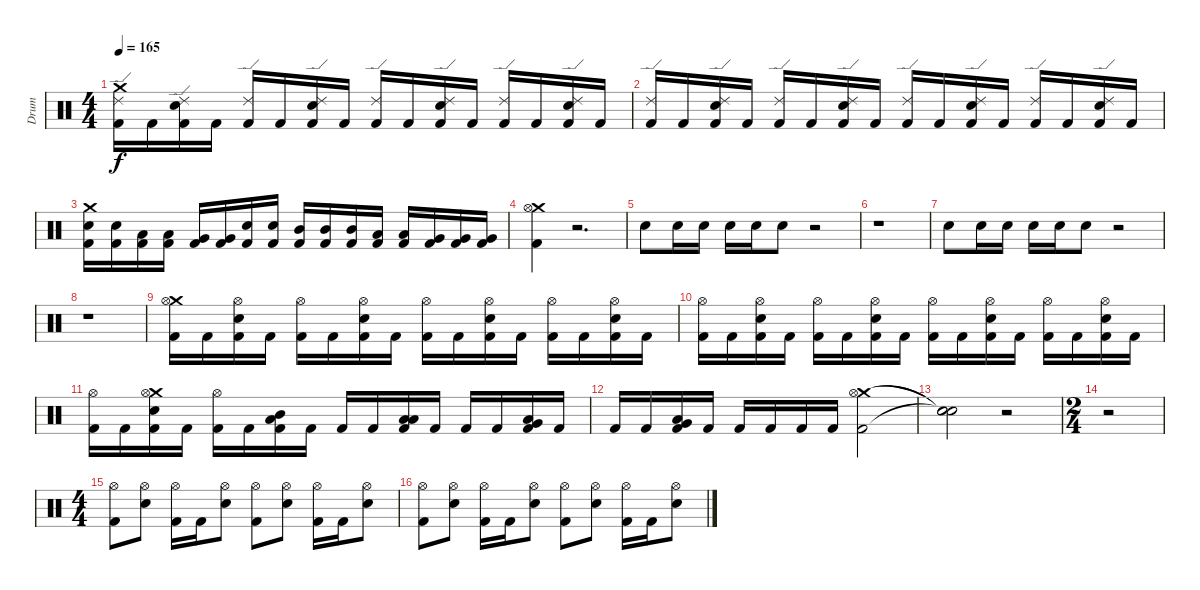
\track ("Drum" "Drum") {instrument percussion}
\staff {score}
\articulation defaults
\ts (4 4)
\tempo 165
\clef neutral
\ks c
("Crash medium (hit)" "Ride (edge) 2" "Kick (hit) 2").16{dy f} "Kick (hit) 2".16 ("Electric Snare (hit)" "Ride (edge) 2" "Kick (hit) 2").16 "Kick (hit) 2".16 ("Ride (edge) 2" "Kick (hit) 2").16 "Kick (hit) 2".16 ("Electric Snare (hit)" "Ride (edge) 2" "Kick (hit) 2").16 "Kick (hit) 2".16 ("Ride (edge) 2" "Kick (hit) 2").16 "Kick (hit) 2".16 ("Electric Snare (hit)" "Ride (edge) 2" "Kick (hit) 2").16 "Kick (hit) 2".16 ("Ride (edge) 2" "Kick (hit) 2").16 "Kick (hit) 2".16 ("Electric Snare (hit)" "Ride (edge) 2" "Kick (hit) 2").16 "Kick (hit) 2".16 |
("Ride (edge) 2" "Kick (hit) 2").16 "Kick (hit) 2".16 ("Electric Snare (hit)" "Ride (edge) 2" "Kick (hit) 2").16 "Kick (hit) 2".16 ("Ride (edge) 2" "Kick (hit) 2").16 "Kick (hit) 2".16 ("Electric Snare (hit)" "Ride (edge) 2" "Kick (hit) 2").16 "Kick (hit) 2".16 ("Ride (edge) 2" "Kick (hit) 2").16 "Kick (hit) 2".16 ("Electric Snare (hit)" "Ride (edge) 2" "Kick (hit) 2").16 "Kick (hit) 2".16 ("Ride (edge) 2" "Kick (hit) 2").16 "Kick (hit) 2".16 ("Electric Snare (hit)" "Ride (edge) 2" "Kick (hit) 2").16 "Kick (hit) 2".16 |
("Crash medium (hit)" "Electric Snare (hit)" "Kick (hit) 2").16 ("Electric Snare (hit)" "Kick (hit) 2").16 ("Low Tom (hit)" "Kick (hit) 2").16 ("Low Tom (hit)" "Kick (hit) 2").16 ("Very Low Tom (hit)" "Kick (hit) 2").16 ("Very Low Tom (hit)" "Kick (hit) 2").16 ("Electric Snare (hit)" "Kick (hit) 2").16 ("Electric Snare (hit)" "Kick (hit) 2").16 ("Mid Tom (hit)" "Kick (hit) 2").16 ("Mid Tom (hit)" "Kick (hit) 2").16 ("Mid Tom (hit)" "Kick (hit) 2").16 ("Low Tom (hit)" "Kick (hit) 2").16 ("Low Tom (hit)" "Kick (hit) 2").16 ("Very Low Tom (hit)" "Kick (hit) 2").16 ("Very Low Tom (hit)" "Kick (hit) 2").16 ("Very Low Tom (hit)" "Kick (hit) 2").16 |
("Crash medium (hit)" "Hi-Hat (open)" "Kick (hit) 2").4 r.2{d} |
"Electric Snare (hit)".8{volume 10} "Electric Snare (hit)".16 "Electric Snare (hit)".16 "Electric Snare (hit)".16 "Electric Snare (hit)".16 "Electric Snare (hit)".8 r.2 |
r.1 |
"Electric Snare (hit)".8{volume 10} "Electric Snare (hit)".16 "Electric Snare (hit)".16 "Electric Snare (hit)".16 "Electric Snare (hit)".16 "Electric Snare (hit)".8 r.2 |
r.1 |
("Crash medium (hit)" "Hi-Hat (open)" "Kick (hit) 2").16 "Kick (hit) 2".16 ("Electric Snare (hit)" "Hi-Hat (open)" "Kick (hit) 2").16 "Kick (hit) 2".16 ("Hi-Hat (open)" "Kick (hit) 2").16 "Kick (hit) 2".16 ("Electric Snare (hit)" "Hi-Hat (open)" "Kick (hit) 2").16 "Kick (hit) 2".16 ("Hi-Hat (open)" "Kick (hit) 2").16 "Kick (hit) 2".16 ("Electric Snare (hit)" "Hi-Hat (open)" "Kick (hit) 2").16 "Kick (hit) 2".16 ("Hi-Hat (open)" "Kick (hit) 2").16 "Kick (hit) 2".16 ("Electric Snare (hit)" "Hi-Hat (open)" "Kick (hit) 2").16 "Kick (hit) 2".16 |
("Hi-Hat (open)" "Kick (hit) 2").16 "Kick (hit) 2".16 ("Electric Snare (hit)" "Hi-Hat (open)" "Kick (hit) 2").16 "Kick (hit) 2".16 ("Hi-Hat (open)" "Kick (hit) 2").16 "Kick (hit) 2".16 ("Electric Snare (hit)" "Hi-Hat (open)" "Kick (hit) 2").16 "Kick (hit) 2".16 ("Hi-Hat (open)" "Kick (hit) 2").16 "Kick (hit) 2".16 ("Electric Snare (hit)" "Hi-Hat (open)" "Kick (hit) 2").16 "Kick (hit) 2".16 ("Hi-Hat (open)" "Kick (hit) 2").16 "Kick (hit) 2".16 ("Electric Snare (hit)" "Hi-Hat (open)" "Kick (hit) 2").16 "Kick (hit) 2".16 |
("Hi-Hat (open)" "Kick (hit) 2").16 "Kick (hit) 2".16 ("Crash medium (hit)" "Electric Snare (hit)" "Hi-Hat (open)" "Kick (hit) 2").16 "Kick (hit) 2".16 ("Hi-Hat (open)" "Kick (hit) 2").16 "Kick (hit) 2".16 ("Mid Tom (hit)" "Low Floor Tom (hit)" "Kick (hit) 2").16 "Kick (hit) 2".16 "Kick (hit) 2".16 "Kick (hit) 2".16 ("Low Tom (hit)" "Low Floor Tom (hit)" "Kick (hit) 2").16 "Kick (hit) 2".16 "Kick (hit) 2".16 "Kick (hit) 2".16 ("Very Low Tom (hit)" "Low Floor Tom (hit)" "Kick (hit) 2").16 "Kick (hit) 2".16 |
"Kick (hit) 2".16 "Kick (hit) 2".16 ("Low Floor Tom (hit)" "Very Low Tom (hit)" "Kick (hit) 2").16 "Kick (hit) 2".16 "Kick (hit) 2".16 "Kick (hit) 2".16 "Kick (hit) 2".16 "Kick (hit) 2".16 ("Crash medium (hit)" "Hi-Hat (open)" "Kick (hit) 2").2 |
("Snare (hit)"{t} "Snare (hit)"{t} "Snare (hit)"{t}).2 r.2 |
\ts (2 4)
r.2 |
\ts (4 4)
("Hi-Hat (open)" "Kick (hit) 2").8 ("Hi-Hat (open)" "Electric Snare (hit)").8 ("Hi-Hat (open)" "Kick (hit) 2").16 "Kick (hit) 2".16 ("Hi-Hat (open)" "Electric Snare (hit)").8 ("Hi-Hat (open)" "Kick (hit) 2").8 ("Hi-Hat (open)" "Electric Snare (hit)").8 ("Hi-Hat (open)" "Kick (hit) 2").16 "Kick (hit) 2".16 ("Hi-Hat (open)" "Electric Snare (hit)").8 |
("Hi-Hat (open)" "Kick (hit) 2").8 ("Hi-Hat (open)" "Electric Snare (hit)").8 ("Hi-Hat (open)" "Kick (hit) 2").16 "Kick (hit) 2".16 ("Hi-Hat (open)" "Electric Snare (hit)").8 ("Hi-Hat (open)" "Kick (hit) 2").8 ("Hi-Hat (open)" "Electric Snare (hit)").8 ("Hi-Hat (open)" "Kick (hit) 2").16 "Kick (hit) 2".16 ("Hi-Hat (open)" "Electric Snare (hit)").8
